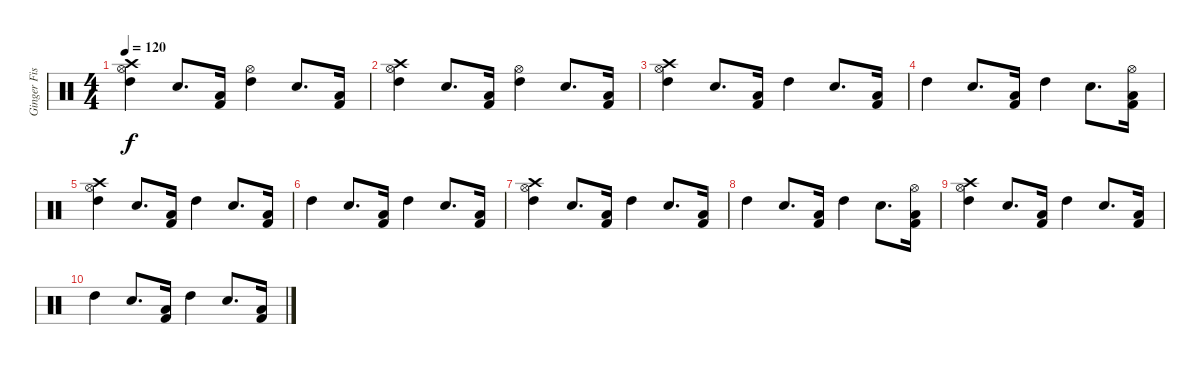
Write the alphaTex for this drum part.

\track ("Ginger Fish" "Ginger Fis") {instrument percussion}
\staff {score}
\articulation defaults
\ts (4 4)
\tempo 120
\clef neutral
\ks c
("Crash high (hit)" "Hi-Hat (open)" "High Tom (hit)").4{dy f} "Electric Snare (hit)".8{d} ("Low Tom (hit)" "Kick (hit) 2").16 ("Hi-Hat (open)" "High Tom (hit)").4 "Electric Snare (hit)".8{d} ("Low Tom (hit)" "Kick (hit) 2").16 |
("Crash high (hit)" "Hi-Hat (open)" "High Tom (hit)").4 "Electric Snare (hit)".8{d} ("Low Tom (hit)" "Kick (hit) 2").16 ("Hi-Hat (open)" "High Tom (hit)").4 "Electric Snare (hit)".8{d} ("Low Tom (hit)" "Kick (hit) 2").16 |
("Hi-Hat (open)" "Crash high (hit)" "High Tom (hit)").4 "Electric Snare (hit)".8{d} ("Low Tom (hit)" "Kick (hit) 2").16 "High Tom (hit)".4 "Electric Snare (hit)".8{d} ("Low Tom (hit)" "Kick (hit) 2").16 |
"High Tom (hit)".4 "Electric Snare (hit)".8{d} ("Low Tom (hit)" "Kick (hit) 2").16 "High Tom (hit)".4 "Electric Snare (hit)".8{d} ("Hi-Hat (open)" "Low Tom (hit)" "Kick (hit) 2").16 |
("Hi-Hat (open)" "Crash high (hit)" "High Tom (hit)").4 "Electric Snare (hit)".8{d} ("Low Tom (hit)" "Kick (hit) 2").16 "High Tom (hit)".4 "Electric Snare (hit)".8{d} ("Low Tom (hit)" "Kick (hit) 2").16 |
"High Tom (hit)".4 "Electric Snare (hit)".8{d} ("Low Tom (hit)" "Kick (hit) 2").16 "High Tom (hit)".4 "Electric Snare (hit)".8{d} ("Low Tom (hit)" "Kick (hit) 2").16 |
("Hi-Hat (open)" "Crash high (hit)" "High Tom (hit)").4 "Electric Snare (hit)".8{d} ("Low Tom (hit)" "Kick (hit) 2").16 "High Tom (hit)".4 "Electric Snare (hit)".8{d} ("Low Tom (hit)" "Kick (hit) 2").16 |
"High Tom (hit)".4 "Electric Snare (hit)".8{d} ("Low Tom (hit)" "Kick (hit) 2").16 "High Tom (hit)".4 "Electric Snare (hit)".8{d} ("Hi-Hat (open)" "Low Tom (hit)" "Kick (hit) 2").16 |
("Hi-Hat (open)" "Crash high (hit)" "High Tom (hit)").4 "Electric Snare (hit)".8{d} ("Low Tom (hit)" "Kick (hit) 2").16 "High Tom (hit)".4 "Electric Snare (hit)".8{d} ("Low Tom (hit)" "Kick (hit) 2").16 |
"High Tom (hit)".4 "Electric Snare (hit)".8{d} ("Low Tom (hit)" "Kick (hit) 2").16 "High Tom (hit)".4 "Electric Snare (hit)".8{d} ("Low Tom (hit)" "Kick (hit) 2").16
